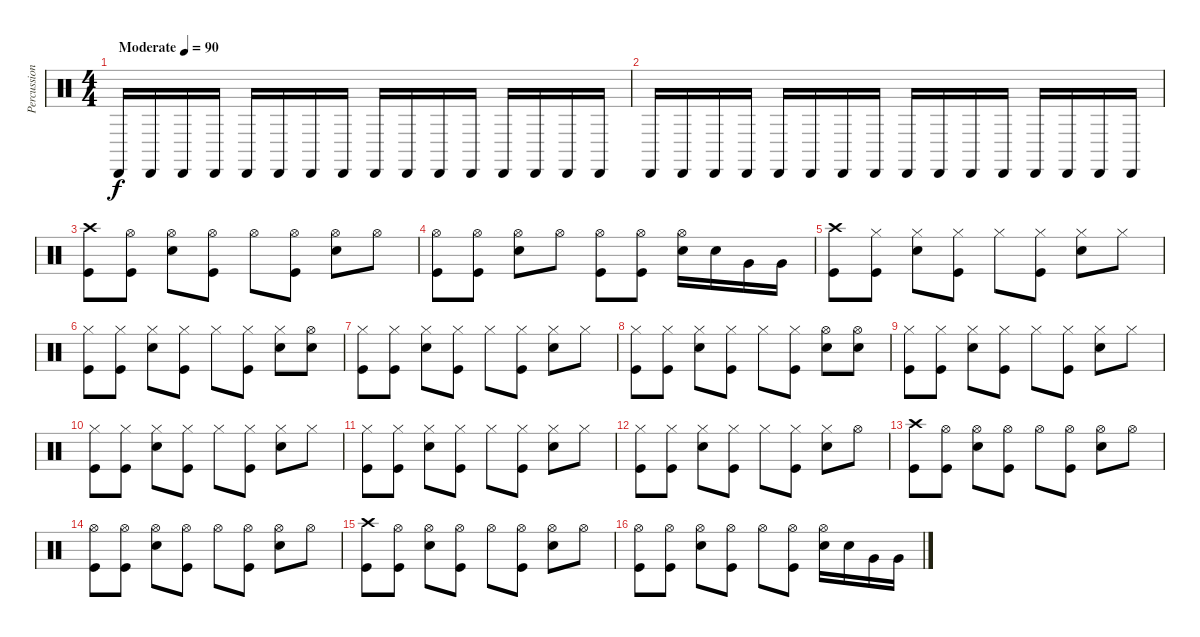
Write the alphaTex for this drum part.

\track ("Percussion" "Percussion") {instrument percussion}
\staff {score}
\articulation defaults
\ts (4 4)
\tempo (90 "Moderate")
\clef neutral
\ks c "Cabasa (hit)".16{dy f} "Cabasa (hit)".16 "Cabasa (hit)".16 "Cabasa (hit)".16 "Cabasa (hit)".16 "Cabasa (hit)".16 "Cabasa (hit)".16 "Cabasa (hit)".16 "Cabasa (hit)".16 "Cabasa (hit)".16 "Cabasa (hit)".16 "Cabasa (hit)".16 "Cabasa (hit)".16 "Cabasa (hit)".16 "Cabasa (hit)".16 "Cabasa (hit)".16
|
"Cabasa (hit)".16 "Cabasa (hit)".16 "Cabasa (hit)".16 "Cabasa (hit)".16 "Cabasa (hit)".16 "Cabasa (hit)".16 "Cabasa (hit)".16 "Cabasa (hit)".16 "Cabasa (hit)".16 "Cabasa (hit)".16 "Cabasa (hit)".16 "Cabasa (hit)".16 "Cabasa (hit)".16 "Cabasa (hit)".16 "Cabasa (hit)".16 "Cabasa (hit)".16 |
("Crash high (hit)" "Kick (hit)").8 ("Hi-Hat (open)" "Kick (hit)").8 ("Hi-Hat (open)" "Electric Snare (hit)").8 ("Hi-Hat (open)" "Kick (hit)").8 "Hi-Hat (open)".8 ("Hi-Hat (open)" "Kick (hit)").8 ("Hi-Hat (open)" "Electric Snare (hit)").8 "Hi-Hat (open)".8 |
("Hi-Hat (open)" "Kick (hit)").8 ("Hi-Hat (open)" "Kick (hit)").8 ("Hi-Hat (open)" "Electric Snare (hit)").8 "Hi-Hat (open)".8 ("Hi-Hat (open)" "Kick (hit)").8 ("Hi-Hat (open)" "Kick (hit)").8 ("Hi-Hat (open)" "Electric Snare (hit)").16 "Electric Snare (hit)".16 "Very Low Tom (hit)".16 "Very Low Tom (hit)".16 |
("Crash high (hit)" "Kick (hit)").8 ("Hi-Hat (closed)" "Kick (hit)").8 ("Hi-Hat (closed)" "Electric Snare (hit)").8 ("Hi-Hat (closed)" "Kick (hit)").8 "Hi-Hat (closed)".8 ("Hi-Hat (closed)" "Kick (hit)").8 ("Hi-Hat (closed)" "Electric Snare (hit)").8 "Hi-Hat (closed)".8 |
("Hi-Hat (closed)" "Kick (hit)").8 ("Hi-Hat (closed)" "Kick (hit)").8 ("Hi-Hat (closed)" "Electric Snare (hit)").8 ("Hi-Hat (closed)" "Kick (hit)").8 "Hi-Hat (closed)".8 ("Hi-Hat (closed)" "Kick (hit)").8 ("Hi-Hat (closed)" "Electric Snare (hit)").8 ("Hi-Hat (open)" "Electric Snare (hit)").8 |
("Hi-Hat (closed)" "Kick (hit)").8 ("Hi-Hat (closed)" "Kick (hit)").8 ("Hi-Hat (closed)" "Electric Snare (hit)").8 ("Hi-Hat (closed)" "Kick (hit)").8 "Hi-Hat (closed)".8 ("Hi-Hat (closed)" "Kick (hit)").8 ("Hi-Hat (closed)" "Electric Snare (hit)").8 "Hi-Hat (closed)".8 |
("Hi-Hat (closed)" "Kick (hit)").8 ("Hi-Hat (closed)" "Kick (hit)").8 ("Hi-Hat (closed)" "Electric Snare (hit)").8 ("Hi-Hat (closed)" "Kick (hit)").8 "Hi-Hat (closed)".8 ("Hi-Hat (closed)" "Kick (hit)").8 ("Hi-Hat (open)" "Electric Snare (hit)").8 ("Hi-Hat (open)" "Electric Snare (hit)").8 |
("Hi-Hat (closed)" "Kick (hit)").8 ("Hi-Hat (closed)" "Kick (hit)").8 ("Hi-Hat (closed)" "Electric Snare (hit)").8 ("Hi-Hat (closed)" "Kick (hit)").8 "Hi-Hat (closed)".8 ("Hi-Hat (closed)" "Kick (hit)").8 ("Hi-Hat (closed)" "Electric Snare (hit)").8 "Hi-Hat (closed)".8 |
("Hi-Hat (closed)" "Kick (hit)").8 ("Hi-Hat (closed)" "Kick (hit)").8 ("Hi-Hat (closed)" "Electric Snare (hit)").8 ("Hi-Hat (closed)" "Kick (hit)").8 "Hi-Hat (closed)".8 ("Hi-Hat (closed)" "Kick (hit)").8 ("Hi-Hat (closed)" "Electric Snare (hit)").8 "Hi-Hat (closed)".8 |
("Hi-Hat (closed)" "Kick (hit)").8 ("Hi-Hat (closed)" "Kick (hit)").8 ("Hi-Hat (closed)" "Electric Snare (hit)").8 ("Hi-Hat (closed)" "Kick (hit)").8 "Hi-Hat (closed)".8 ("Hi-Hat (closed)" "Kick (hit)").8 ("Hi-Hat (closed)" "Electric Snare (hit)").8 "Hi-Hat (closed)".8 |
("Hi-Hat (closed)" "Kick (hit)").8 ("Hi-Hat (closed)" "Kick (hit)").8 ("Hi-Hat (closed)" "Electric Snare (hit)").8 ("Hi-Hat (closed)" "Kick (hit)").8 "Hi-Hat (closed)".8 ("Hi-Hat (closed)" "Kick (hit)").8 ("Hi-Hat (closed)" "Electric Snare (hit)").8 "Hi-Hat (open)".8 |
("Crash high (hit)" "Kick (hit)").8 ("Hi-Hat (open)" "Kick (hit)").8 ("Hi-Hat (open)" "Electric Snare (hit)").8 ("Hi-Hat (open)" "Kick (hit)").8 "Hi-Hat (open)".8 ("Hi-Hat (open)" "Kick (hit)").8 ("Hi-Hat (open)" "Electric Snare (hit)").8 "Hi-Hat (open)".8 |
("Hi-Hat (open)" "Kick (hit)").8 ("Hi-Hat (open)" "Kick (hit)").8 ("Hi-Hat (open)" "Electric Snare (hit)").8 ("Hi-Hat (open)" "Kick (hit)").8 "Hi-Hat (open)".8 ("Hi-Hat (open)" "Kick (hit)").8 ("Hi-Hat (open)" "Electric Snare (hit)").8 "Hi-Hat (open)".8 |
("Crash high (hit)" "Kick (hit)").8 ("Hi-Hat (open)" "Kick (hit)").8 ("Hi-Hat (open)" "Electric Snare (hit)").8 ("Hi-Hat (open)" "Kick (hit)").8 "Hi-Hat (open)".8 ("Hi-Hat (open)" "Kick (hit)").8 ("Hi-Hat (open)" "Electric Snare (hit)").8 "Hi-Hat (open)".8 |
("Hi-Hat (open)" "Kick (hit)").8 ("Hi-Hat (open)" "Kick (hit)").8 ("Hi-Hat (open)" "Electric Snare (hit)").8 ("Hi-Hat (open)" "Kick (hit)").8 "Hi-Hat (open)".8 ("Hi-Hat (open)" "Kick (hit)").8 ("Hi-Hat (open)" "Electric Snare (hit)").16 "Electric Snare (hit)".16 "Very Low Tom (hit)".16 "Very Low Tom (hit)".16
